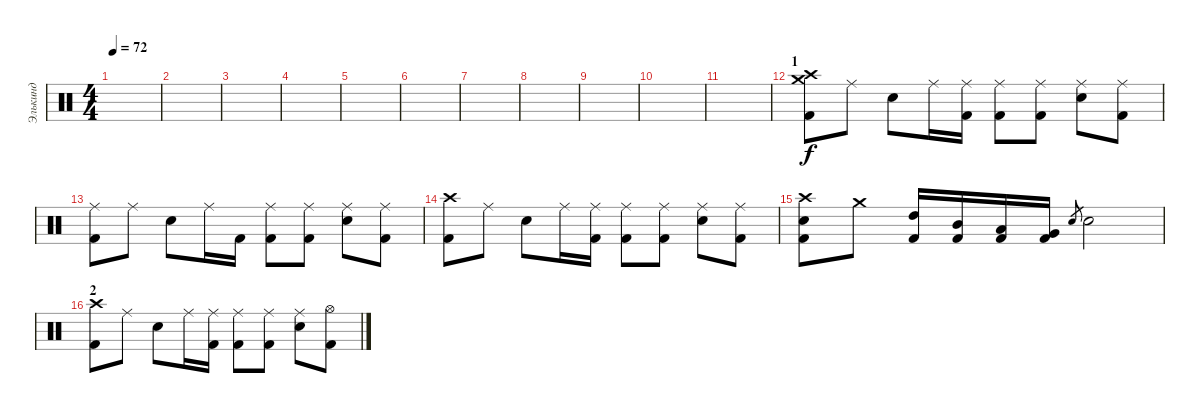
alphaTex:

\track ("Элькинд" "Элькинд") {instrument percussion}
\staff {score}
\articulation defaults
\ts (4 4)
\tempo 72
\clef neutral
\ks c
|
|
|
|
|
|
|
|
|
|
|
\section ("" "1")
("Crash high (hit)" "Crash medium (hit)" "Kick (hit) 2").8 "Ride (middle)".8 "Snare (hit) 2".8 "Ride (middle)".16 ("Ride (middle)" "Kick (hit) 2").16 ("Ride (middle)" "Kick (hit) 2").8 ("Ride (middle)" "Kick (hit) 2").8 ("Ride (middle)" "Snare (hit) 2").8 ("Ride (middle)" "Kick (hit) 2").8 |
("Ride (middle)" "Kick (hit) 2").8 "Ride (middle)".8 "Snare (hit) 2".8 "Ride (middle)".16 "Kick (hit) 2".16 ("Ride (middle)" "Kick (hit) 2").8 ("Ride (middle)" "Kick (hit) 2").8 ("Ride (middle)" "Snare (hit) 2").8 ("Ride (middle)" "Kick (hit) 2").8 |
("Crash high (hit)" "Kick (hit) 2").8 "Ride (middle)".8 "Snare (hit) 2".8 "Ride (middle)".16 ("Ride (middle)" "Kick (hit) 2").16 ("Ride (middle)" "Kick (hit) 2").8 ("Ride (middle)" "Kick (hit) 2").8 ("Ride (middle)" "Snare (hit) 2").8 ("Ride (middle)" "Kick (hit) 2").8 |
("Crash high (hit)" "Snare (hit) 2" "Kick (hit) 2").8 "Crash medium (hit)".8 ("High Tom (hit)" "Kick (hit) 2").16 ("Mid Tom (hit)" "Kick (hit) 2").16 ("Low Tom (hit)" "Kick (hit) 2").16 ("Very Low Tom (hit)" "Kick (hit) 2").16 "Snare (hit) 2".8{gr} "Snare (hit) 2".2 |
\section ("" "2")
("Crash high (hit)" "Kick (hit) 2").8 "Ride (middle)".8 "Snare (hit) 2".8 "Ride (middle)".16 ("Ride (middle)" "Kick (hit) 2").16 ("Ride (middle)" "Kick (hit) 2").8 ("Ride (middle)" "Kick (hit) 2").8 ("Ride (middle)" "Snare (hit) 2").8 ("Hi-Hat (open)" "Kick (hit) 2").8
